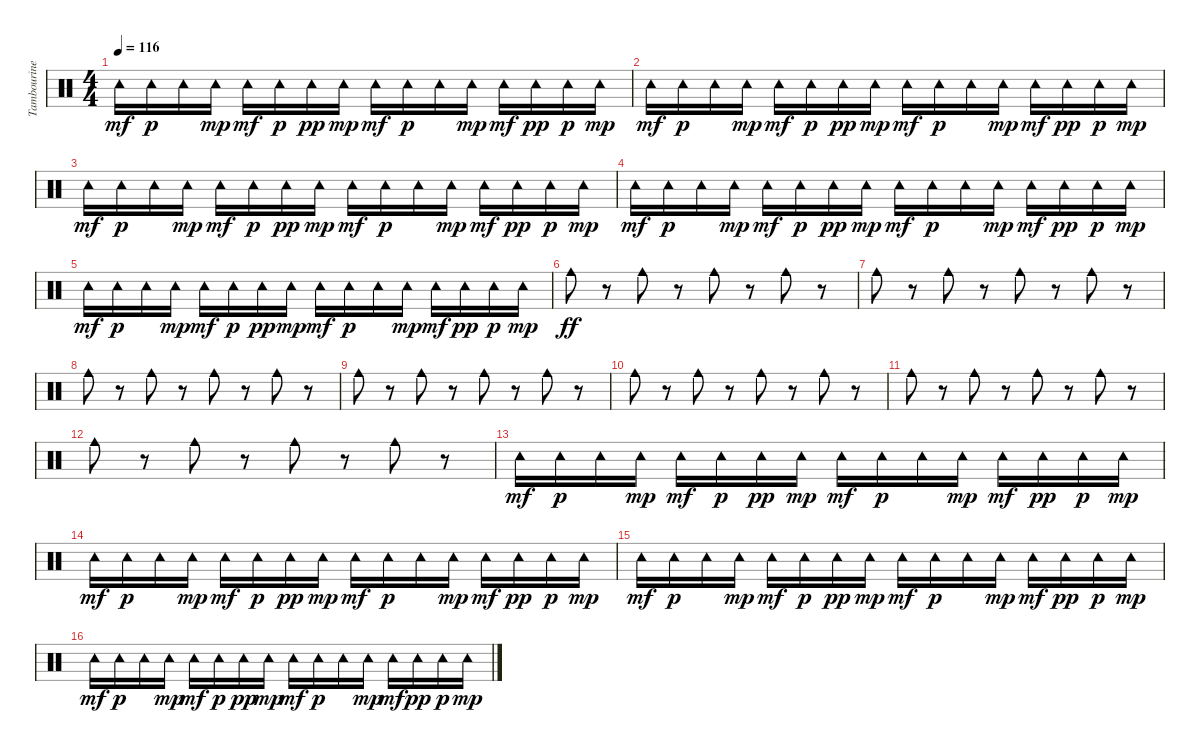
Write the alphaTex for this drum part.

\track ("Tambourine" "Tambourine") {instrument percussion}
\staff {score}
\articulation defaults
\ts (4 4)
\tempo 116
\clef neutral
\ks c "Tambourine (hit)".16{dy mf} "Tambourine (hit)".16{dy p} "Tambourine (hit)".16 "Tambourine (hit)".16{dy mp} "Tambourine (hit)".16{dy mf} "Tambourine (hit)".16{dy p} "Tambourine (hit)".16{dy pp} "Tambourine (hit)".16{dy mp} "Tambourine (hit)".16{dy mf} "Tambourine (hit)".16{dy p} "Tambourine (hit)".16 "Tambourine (hit)".16{dy mp} "Tambourine (hit)".16{dy mf} "Tambourine (hit)".16{dy pp} "Tambourine (hit)".16{dy p} "Tambourine (hit)".16{dy mp}
|
"Tambourine (hit)".16{dy mf} "Tambourine (hit)".16{dy p} "Tambourine (hit)".16 "Tambourine (hit)".16{dy mp} "Tambourine (hit)".16{dy mf} "Tambourine (hit)".16{dy p} "Tambourine (hit)".16{dy pp} "Tambourine (hit)".16{dy mp} "Tambourine (hit)".16{dy mf} "Tambourine (hit)".16{dy p} "Tambourine (hit)".16 "Tambourine (hit)".16{dy mp} "Tambourine (hit)".16{dy mf} "Tambourine (hit)".16{dy pp} "Tambourine (hit)".16{dy p} "Tambourine (hit)".16{dy mp} |
"Tambourine (hit)".16{dy mf} "Tambourine (hit)".16{dy p} "Tambourine (hit)".16 "Tambourine (hit)".16{dy mp} "Tambourine (hit)".16{dy mf} "Tambourine (hit)".16{dy p} "Tambourine (hit)".16{dy pp} "Tambourine (hit)".16{dy mp} "Tambourine (hit)".16{dy mf} "Tambourine (hit)".16{dy p} "Tambourine (hit)".16 "Tambourine (hit)".16{dy mp} "Tambourine (hit)".16{dy mf} "Tambourine (hit)".16{dy pp} "Tambourine (hit)".16{dy p} "Tambourine (hit)".16{dy mp} |
"Tambourine (hit)".16{dy mf} "Tambourine (hit)".16{dy p} "Tambourine (hit)".16 "Tambourine (hit)".16{dy mp} "Tambourine (hit)".16{dy mf} "Tambourine (hit)".16{dy p} "Tambourine (hit)".16{dy pp} "Tambourine (hit)".16{dy mp} "Tambourine (hit)".16{dy mf} "Tambourine (hit)".16{dy p} "Tambourine (hit)".16 "Tambourine (hit)".16{dy mp} "Tambourine (hit)".16{dy mf} "Tambourine (hit)".16{dy pp} "Tambourine (hit)".16{dy p} "Tambourine (hit)".16{dy mp} |
"Tambourine (hit)".16{dy mf} "Tambourine (hit)".16{dy p} "Tambourine (hit)".16 "Tambourine (hit)".16{dy mp} "Tambourine (hit)".16{dy mf} "Tambourine (hit)".16{dy p} "Tambourine (hit)".16{dy pp} "Tambourine (hit)".16{dy mp} "Tambourine (hit)".16{dy mf} "Tambourine (hit)".16{dy p} "Tambourine (hit)".16 "Tambourine (hit)".16{dy mp} "Tambourine (hit)".16{dy mf} "Tambourine (hit)".16{dy pp} "Tambourine (hit)".16{dy p} "Tambourine (hit)".16{dy mp} |
"Cowbell medium (hit)".8{dy ff} r.8 "Cowbell medium (hit)".8 r.8 "Cowbell medium (hit)".8 r.8 "Cowbell medium (hit)".8 r.8 |
"Cowbell medium (hit)".8 r.8 "Cowbell medium (hit)".8 r.8 "Cowbell medium (hit)".8 r.8 "Cowbell medium (hit)".8 r.8 |
"Cowbell medium (hit)".8 r.8 "Cowbell medium (hit)".8 r.8 "Cowbell medium (hit)".8 r.8 "Cowbell medium (hit)".8 r.8 |
"Cowbell medium (hit)".8 r.8 "Cowbell medium (hit)".8 r.8 "Cowbell medium (hit)".8 r.8 "Cowbell medium (hit)".8 r.8 |
"Cowbell medium (hit)".8 r.8 "Cowbell medium (hit)".8 r.8 "Cowbell medium (hit)".8 r.8 "Cowbell medium (hit)".8 r.8 |
"Cowbell medium (hit)".8 r.8 "Cowbell medium (hit)".8 r.8 "Cowbell medium (hit)".8 r.8 "Cowbell medium (hit)".8 r.8 |
"Cowbell medium (hit)".8 r.8 "Cowbell medium (hit)".8 r.8 "Cowbell medium (hit)".8 r.8 "Cowbell medium (hit)".8 r.8 |
"Tambourine (hit)".16{dy mf} "Tambourine (hit)".16{dy p} "Tambourine (hit)".16 "Tambourine (hit)".16{dy mp} "Tambourine (hit)".16{dy mf} "Tambourine (hit)".16{dy p} "Tambourine (hit)".16{dy pp} "Tambourine (hit)".16{dy mp} "Tambourine (hit)".16{dy mf} "Tambourine (hit)".16{dy p} "Tambourine (hit)".16 "Tambourine (hit)".16{dy mp} "Tambourine (hit)".16{dy mf} "Tambourine (hit)".16{dy pp} "Tambourine (hit)".16{dy p} "Tambourine (hit)".16{dy mp} |
"Tambourine (hit)".16{dy mf} "Tambourine (hit)".16{dy p} "Tambourine (hit)".16 "Tambourine (hit)".16{dy mp} "Tambourine (hit)".16{dy mf} "Tambourine (hit)".16{dy p} "Tambourine (hit)".16{dy pp} "Tambourine (hit)".16{dy mp} "Tambourine (hit)".16{dy mf} "Tambourine (hit)".16{dy p} "Tambourine (hit)".16 "Tambourine (hit)".16{dy mp} "Tambourine (hit)".16{dy mf} "Tambourine (hit)".16{dy pp} "Tambourine (hit)".16{dy p} "Tambourine (hit)".16{dy mp} |
"Tambourine (hit)".16{dy mf} "Tambourine (hit)".16{dy p} "Tambourine (hit)".16 "Tambourine (hit)".16{dy mp} "Tambourine (hit)".16{dy mf} "Tambourine (hit)".16{dy p} "Tambourine (hit)".16{dy pp} "Tambourine (hit)".16{dy mp} "Tambourine (hit)".16{dy mf} "Tambourine (hit)".16{dy p} "Tambourine (hit)".16 "Tambourine (hit)".16{dy mp} "Tambourine (hit)".16{dy mf} "Tambourine (hit)".16{dy pp} "Tambourine (hit)".16{dy p} "Tambourine (hit)".16{dy mp} |
"Tambourine (hit)".16{dy mf} "Tambourine (hit)".16{dy p} "Tambourine (hit)".16 "Tambourine (hit)".16{dy mp} "Tambourine (hit)".16{dy mf} "Tambourine (hit)".16{dy p} "Tambourine (hit)".16{dy pp} "Tambourine (hit)".16{dy mp} "Tambourine (hit)".16{dy mf} "Tambourine (hit)".16{dy p} "Tambourine (hit)".16 "Tambourine (hit)".16{dy mp} "Tambourine (hit)".16{dy mf} "Tambourine (hit)".16{dy pp} "Tambourine (hit)".16{dy p} "Tambourine (hit)".16{dy mp}
